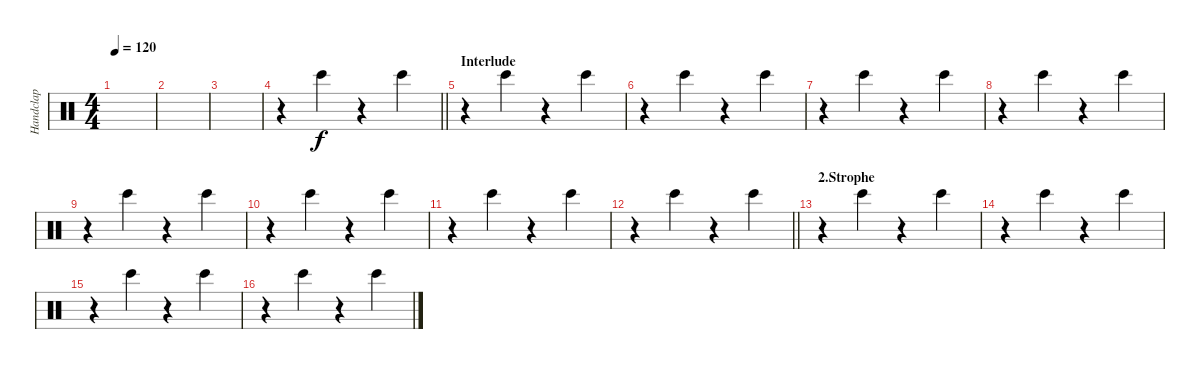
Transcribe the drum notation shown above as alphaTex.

\track ("Handclap" "Handclap") {instrument percussion}
\staff {score}
\articulation defaults
\ts (4 4)
\tempo 120
\clef neutral
\ks c
|
|
|
\barLineRight lightlight
r.4 "Bongo High (hit)".4 r.4 "Bongo High (hit)".4 |
\section ("" "Interlude")
r.4 "Bongo High (hit)".4 r.4 "Bongo High (hit)".4 |
r.4 "Bongo High (hit)".4 r.4 "Bongo High (hit)".4 |
r.4 "Bongo High (hit)".4 r.4 "Bongo High (hit)".4 |
r.4 "Bongo High (hit)".4 r.4 "Bongo High (hit)".4 |
r.4 "Bongo High (hit)".4 r.4 "Bongo High (hit)".4 |
r.4 "Bongo High (hit)".4 r.4 "Bongo High (hit)".4 |
r.4 "Bongo High (hit)".4 r.4 "Bongo High (hit)".4 |
\barLineRight lightlight
r.4 "Bongo High (hit)".4 r.4 "Bongo High (hit)".4 |
\section ("" "2.Strophe")
r.4 "Bongo High (hit)".4 r.4 "Bongo High (hit)".4 |
r.4 "Bongo High (hit)".4 r.4 "Bongo High (hit)".4 |
r.4 "Bongo High (hit)".4 r.4 "Bongo High (hit)".4 |
r.4 "Bongo High (hit)".4 r.4 "Bongo High (hit)".4
